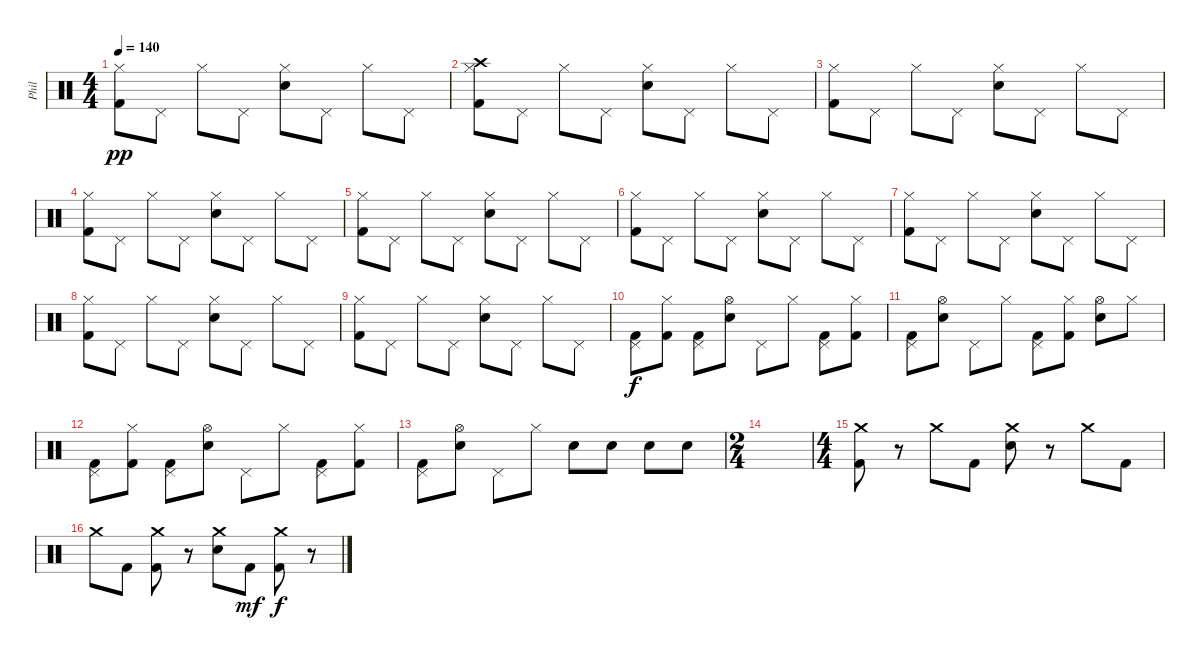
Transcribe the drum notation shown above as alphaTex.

\track ("Phil" "Phil") {instrument percussion}
\staff {score}
\articulation defaults
\ts (4 4)
\tempo 140
\clef neutral
\ks c
("Hi-Hat (closed)" "Kick (hit) 2").8{dy pp} "Pedal Hi-Hat (hit)".8 "Hi-Hat (closed)".8 "Pedal Hi-Hat (hit)".8 ("Hi-Hat (closed)" "Snare (hit) 2").8 "Pedal Hi-Hat (hit)".8 "Hi-Hat (closed)".8 "Pedal Hi-Hat (hit)".8 |
("Hi-Hat (closed)" "Crash high (hit)" "Kick (hit) 2").8 "Pedal Hi-Hat (hit)".8 "Hi-Hat (closed)".8 "Pedal Hi-Hat (hit)".8 ("Hi-Hat (closed)" "Snare (hit) 2").8 "Pedal Hi-Hat (hit)".8 "Hi-Hat (closed)".8 "Pedal Hi-Hat (hit)".8 |
("Hi-Hat (closed)" "Kick (hit) 2").8 "Pedal Hi-Hat (hit)".8 "Hi-Hat (closed)".8 "Pedal Hi-Hat (hit)".8 ("Hi-Hat (closed)" "Snare (hit) 2").8 "Pedal Hi-Hat (hit)".8 "Hi-Hat (closed)".8 "Pedal Hi-Hat (hit)".8 |
("Hi-Hat (closed)" "Kick (hit) 2").8 "Pedal Hi-Hat (hit)".8 "Hi-Hat (closed)".8 "Pedal Hi-Hat (hit)".8 ("Hi-Hat (closed)" "Snare (hit) 2").8 "Pedal Hi-Hat (hit)".8 "Hi-Hat (closed)".8 "Pedal Hi-Hat (hit)".8 |
("Hi-Hat (closed)" "Kick (hit) 2").8 "Pedal Hi-Hat (hit)".8 "Hi-Hat (closed)".8 "Pedal Hi-Hat (hit)".8 ("Hi-Hat (closed)" "Snare (hit) 2").8 "Pedal Hi-Hat (hit)".8 "Hi-Hat (closed)".8 "Pedal Hi-Hat (hit)".8 |
("Hi-Hat (closed)" "Kick (hit) 2").8 "Pedal Hi-Hat (hit)".8 "Hi-Hat (closed)".8 "Pedal Hi-Hat (hit)".8 ("Hi-Hat (closed)" "Snare (hit) 2").8 "Pedal Hi-Hat (hit)".8 "Hi-Hat (closed)".8 "Pedal Hi-Hat (hit)".8 |
("Hi-Hat (closed)" "Kick (hit) 2").8 "Pedal Hi-Hat (hit)".8 "Hi-Hat (closed)".8 "Pedal Hi-Hat (hit)".8 ("Hi-Hat (closed)" "Snare (hit) 2").8 "Pedal Hi-Hat (hit)".8 "Hi-Hat (closed)".8 "Pedal Hi-Hat (hit)".8 |
("Hi-Hat (closed)" "Kick (hit) 2").8 "Pedal Hi-Hat (hit)".8 "Hi-Hat (closed)".8 "Pedal Hi-Hat (hit)".8 ("Hi-Hat (closed)" "Snare (hit) 2").8 "Pedal Hi-Hat (hit)".8 "Hi-Hat (closed)".8 "Pedal Hi-Hat (hit)".8 |
("Hi-Hat (closed)" "Kick (hit) 2").8 "Pedal Hi-Hat (hit)".8 "Hi-Hat (closed)".8 "Pedal Hi-Hat (hit)".8 ("Hi-Hat (closed)" "Snare (hit) 2").8 "Pedal Hi-Hat (hit)".8 "Hi-Hat (closed)".8 "Pedal Hi-Hat (hit)".8 |
("Pedal Hi-Hat (hit)" "Kick (hit) 2").8{dy f} ("Hi-Hat (closed)" "Kick (hit) 2").8 ("Pedal Hi-Hat (hit)" "Kick (hit) 2").8 ("Hi-Hat (open)" "Snare (hit) 2").8 "Pedal Hi-Hat (hit)".8 "Hi-Hat (closed)".8 ("Pedal Hi-Hat (hit)" "Kick (hit) 2").8 ("Hi-Hat (closed)" "Kick (hit) 2").8 |
("Pedal Hi-Hat (hit)" "Kick (hit) 2").8 ("Hi-Hat (open)" "Snare (hit) 2").8 "Pedal Hi-Hat (hit)".8 "Hi-Hat (closed)".8 ("Pedal Hi-Hat (hit)" "Kick (hit) 2").8 ("Hi-Hat (closed)" "Kick (hit) 2").8 ("Hi-Hat (open)" "Snare (hit) 2").8 "Hi-Hat (closed)".8 |
("Pedal Hi-Hat (hit)" "Kick (hit) 2").8 ("Hi-Hat (closed)" "Kick (hit) 2").8 ("Pedal Hi-Hat (hit)" "Kick (hit) 2").8 ("Hi-Hat (open)" "Snare (hit) 2").8 "Pedal Hi-Hat (hit)".8 "Hi-Hat (closed)".8 ("Pedal Hi-Hat (hit)" "Kick (hit) 2").8 ("Hi-Hat (closed)" "Kick (hit) 2").8 |
("Pedal Hi-Hat (hit)" "Kick (hit) 2").8 ("Hi-Hat (open)" "Snare (hit) 2").8 "Pedal Hi-Hat (hit)".8 "Hi-Hat (closed)".8 "Snare (hit) 2".8 "Snare (hit) 2".8 "Snare (hit) 2".8 "Snare (hit) 2".8 |
\ts (2 4)
|
\ts (4 4)
("Crash medium (hit)" "Kick (hit) 2").8 r.8 "Crash medium (hit)".8 "Kick (hit) 2".8 ("Crash medium (hit)" "Snare (hit) 2").8 r.8 "Crash medium (hit)".8 "Kick (hit) 2".8 |
"Crash medium (hit)".8 "Kick (hit) 2".8 ("Crash medium (hit)" "Kick (hit) 2").8 r.8 ("Crash medium (hit)" "Snare (hit) 2").8 "Kick (hit) 2".8{dy mf} ("Crash medium (hit)" "Kick (hit) 2").8{dy f} r.8
